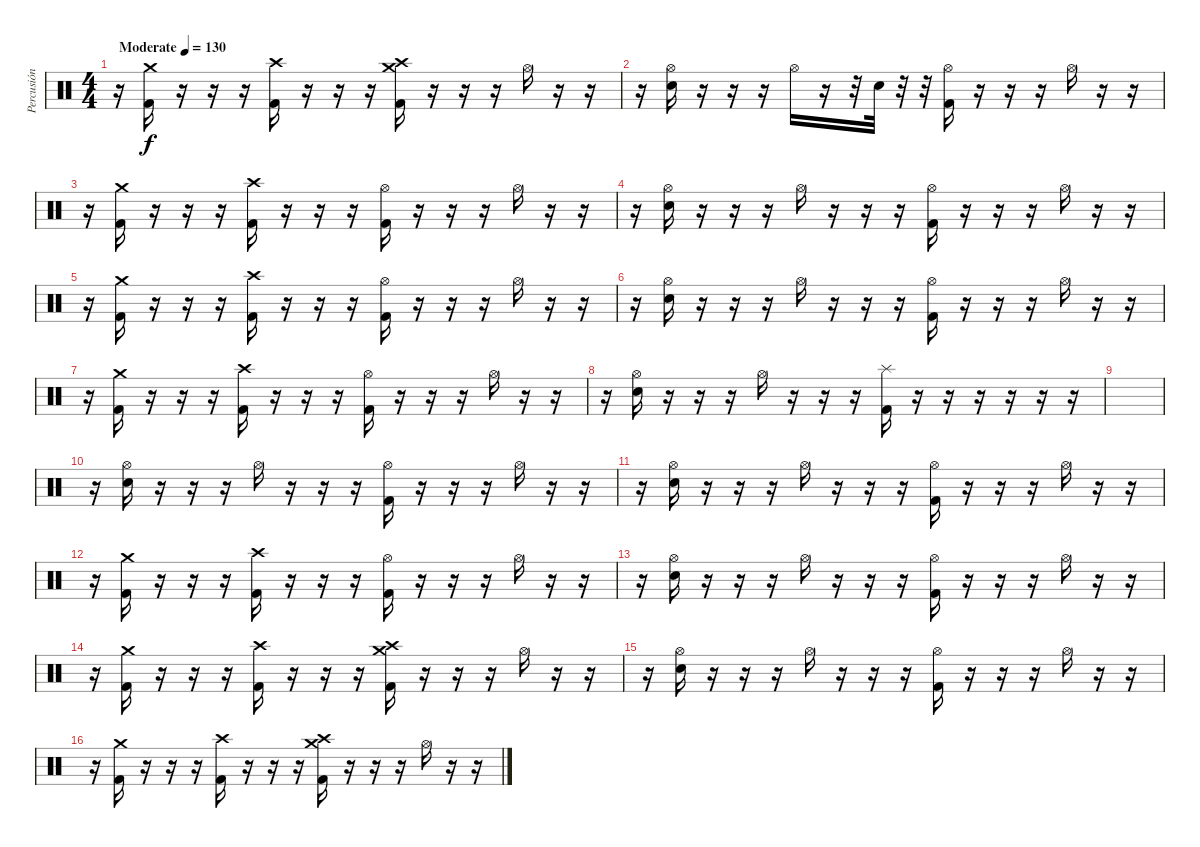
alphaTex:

\track ("Percusión (opcional)" "Percusión ") {mute instrument percussion}
\staff {score}
\articulation defaults
\ts (4 4)
\tempo (130 "Moderate")
\clef neutral
\ks c
r.16{dy f} ("Crash medium (hit)" "Kick (hit) 2").16 r.16 r.16 r.16 ("Crash high (hit)" "Kick (hit) 2").16 r.16 r.16 r.16 ("Crash medium (hit)" "Crash high (hit)" "Kick (hit) 2").16 r.16 r.16 r.16 "Hi-Hat (open)".16 r.16 r.16 |
r.16 ("Hi-Hat (open)" "Electric Snare (hit)").16 r.16 r.16 r.16 "Hi-Hat (open)".16 r.16 r.32 "Electric Snare (hit)".32 r.32 r.32 ("Hi-Hat (open)" "Kick (hit) 2").16 r.16 r.16 r.16 "Hi-Hat (open)".16 r.16 r.16 |
r.16 ("Crash medium (hit)" "Kick (hit) 2").16 r.16 r.16 r.16 ("Crash high (hit)" "Kick (hit) 2").16 r.16 r.16 r.16 ("Hi-Hat (open)" "Kick (hit) 2").16 r.16 r.16 r.16 "Hi-Hat (open)".16 r.16 r.16 |
r.16 ("Hi-Hat (open)" "Electric Snare (hit)").16 r.16 r.16 r.16 "Hi-Hat (open)".16 r.16 r.16 r.16 ("Hi-Hat (open)" "Kick (hit) 2").16 r.16 r.16 r.16 "Hi-Hat (open)".16 r.16 r.16 |
r.16 ("Crash medium (hit)" "Kick (hit) 2").16 r.16 r.16 r.16 ("Crash high (hit)" "Kick (hit) 2").16 r.16 r.16 r.16 ("Hi-Hat (open)" "Kick (hit) 2").16 r.16 r.16 r.16 "Hi-Hat (open)".16 r.16 r.16 |
r.16 ("Hi-Hat (open)" "Electric Snare (hit)").16 r.16 r.16 r.16 "Hi-Hat (open)".16 r.16 r.16 r.16 ("Hi-Hat (open)" "Kick (hit) 2").16 r.16 r.16 r.16 "Hi-Hat (open)".16 r.16 r.16 |
r.16 ("Crash medium (hit)" "Kick (hit) 2").16 r.16 r.16 r.16 ("Crash high (hit)" "Kick (hit) 2").16 r.16 r.16 r.16 ("Hi-Hat (open)" "Kick (hit) 2").16 r.16 r.16 r.16 "Hi-Hat (open)".16 r.16 r.16 |
r.16 ("Hi-Hat (open)" "Electric Snare (hit)").16 r.16 r.16 r.16 "Hi-Hat (open)".16 r.16 r.16 r.16 ("Splash (hit)" "Kick (hit) 2").16 r.16 r.16 r.16 r.16 r.16 r.16 |
|
r.16 ("Hi-Hat (open)" "Electric Snare (hit)").16 r.16 r.16 r.16 "Hi-Hat (open)".16 r.16 r.16 r.16 ("Hi-Hat (open)" "Kick (hit) 2").16 r.16 r.16 r.16 "Hi-Hat (open)".16 r.16 r.16 |
r.16 ("Hi-Hat (open)" "Electric Snare (hit)").16 r.16 r.16 r.16 "Hi-Hat (open)".16 r.16 r.16 r.16 ("Hi-Hat (open)" "Kick (hit) 2").16 r.16 r.16 r.16 "Hi-Hat (open)".16 r.16 r.16 |
r.16 ("Crash medium (hit)" "Kick (hit) 2").16 r.16 r.16 r.16 ("Crash high (hit)" "Kick (hit) 2").16 r.16 r.16 r.16 ("Hi-Hat (open)" "Kick (hit) 2").16 r.16 r.16 r.16 "Hi-Hat (open)".16 r.16 r.16 |
r.16 ("Hi-Hat (open)" "Electric Snare (hit)").16 r.16 r.16 r.16 "Hi-Hat (open)".16 r.16 r.16 r.16 ("Hi-Hat (open)" "Kick (hit) 2").16 r.16 r.16 r.16 "Hi-Hat (open)".16 r.16 r.16 |
r.16 ("Crash medium (hit)" "Kick (hit) 2").16 r.16 r.16 r.16 ("Crash high (hit)" "Kick (hit) 2").16 r.16 r.16 r.16 ("Crash medium (hit)" "Crash high (hit)" "Kick (hit) 2").16 r.16 r.16 r.16 "Hi-Hat (open)".16 r.16 r.16 |
r.16 ("Hi-Hat (open)" "Electric Snare (hit)").16 r.16 r.16 r.16 "Hi-Hat (open)".16 r.16 r.16 r.16 ("Hi-Hat (open)" "Kick (hit) 2").16 r.16 r.16 r.16 "Hi-Hat (open)".16 r.16 r.16 |
r.16 ("Crash medium (hit)" "Kick (hit) 2").16 r.16 r.16 r.16 ("Crash high (hit)" "Kick (hit) 2").16 r.16 r.16 r.16 ("Crash medium (hit)" "Crash high (hit)" "Kick (hit) 2").16 r.16 r.16 r.16 "Hi-Hat (open)".16 r.16 r.16
